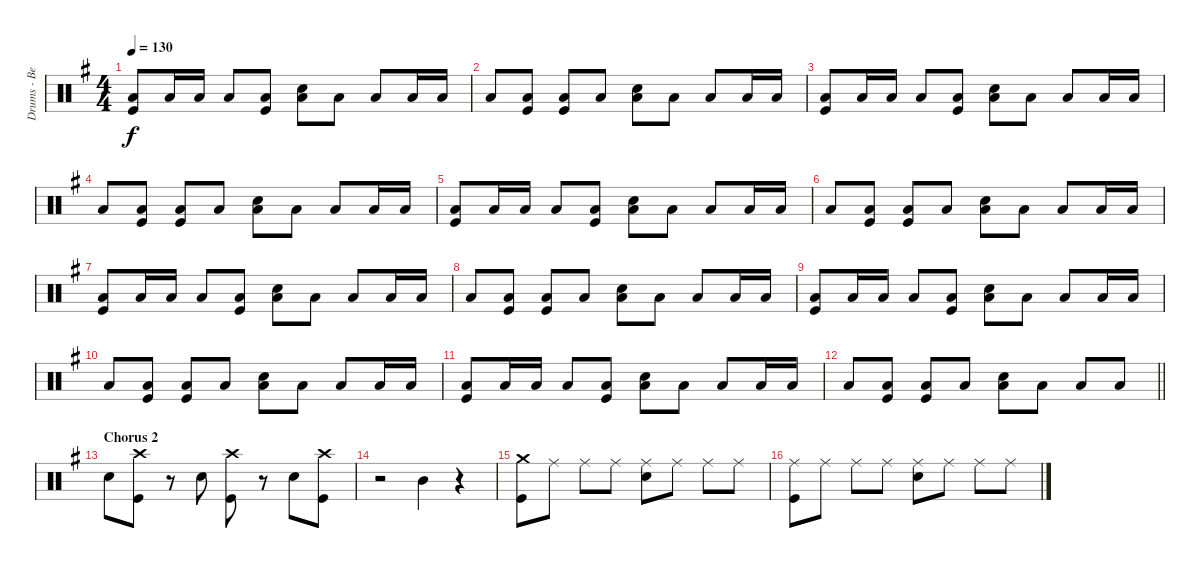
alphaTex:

\track ("Drums - Ben Johnston" "Drums - Be") {instrument percussion}
\staff {score}
\articulation defaults
\ts (4 4)
\tempo 130
\clef neutral
\ks eminor
("Low Tom (hit)" "Kick (hit)").8{dy f} "Low Tom (hit)".16 "Low Tom (hit)".16 "Low Tom (hit)".8 ("Low Tom (hit)" "Kick (hit)").8 ("Low Tom (hit)" "Snare (hit) 2").8 "Low Tom (hit)".8 "Low Tom (hit)".8 "Low Tom (hit)".16 "Low Tom (hit)".16 |
"Low Tom (hit)".8 ("Low Tom (hit)" "Kick (hit)").8 ("Low Tom (hit)" "Kick (hit)").8 "Low Tom (hit)".8 ("Low Tom (hit)" "Snare (hit) 2").8 "Low Tom (hit)".8 "Low Tom (hit)".8 "Low Tom (hit)".16 "Low Tom (hit)".16 |
("Low Tom (hit)" "Kick (hit)").8 "Low Tom (hit)".16 "Low Tom (hit)".16 "Low Tom (hit)".8 ("Low Tom (hit)" "Kick (hit)").8 ("Low Tom (hit)" "Snare (hit) 2").8 "Low Tom (hit)".8 "Low Tom (hit)".8 "Low Tom (hit)".16 "Low Tom (hit)".16 |
"Low Tom (hit)".8 ("Low Tom (hit)" "Kick (hit)").8 ("Low Tom (hit)" "Kick (hit)").8 "Low Tom (hit)".8 ("Low Tom (hit)" "Snare (hit) 2").8 "Low Tom (hit)".8 "Low Tom (hit)".8 "Low Tom (hit)".16 "Low Tom (hit)".16 |
("Low Tom (hit)" "Kick (hit)").8 "Low Tom (hit)".16 "Low Tom (hit)".16 "Low Tom (hit)".8 ("Low Tom (hit)" "Kick (hit)").8 ("Low Tom (hit)" "Snare (hit) 2").8 "Low Tom (hit)".8 "Low Tom (hit)".8 "Low Tom (hit)".16 "Low Tom (hit)".16 |
"Low Tom (hit)".8 ("Low Tom (hit)" "Kick (hit)").8 ("Low Tom (hit)" "Kick (hit)").8 "Low Tom (hit)".8 ("Low Tom (hit)" "Snare (hit) 2").8 "Low Tom (hit)".8 "Low Tom (hit)".8 "Low Tom (hit)".16 "Low Tom (hit)".16 |
("Low Tom (hit)" "Kick (hit)").8 "Low Tom (hit)".16 "Low Tom (hit)".16 "Low Tom (hit)".8 ("Low Tom (hit)" "Kick (hit)").8 ("Low Tom (hit)" "Snare (hit) 2").8 "Low Tom (hit)".8 "Low Tom (hit)".8 "Low Tom (hit)".16 "Low Tom (hit)".16 |
"Low Tom (hit)".8 ("Low Tom (hit)" "Kick (hit)").8 ("Low Tom (hit)" "Kick (hit)").8 "Low Tom (hit)".8 ("Low Tom (hit)" "Snare (hit) 2").8 "Low Tom (hit)".8 "Low Tom (hit)".8 "Low Tom (hit)".16 "Low Tom (hit)".16 |
("Low Tom (hit)" "Kick (hit)").8 "Low Tom (hit)".16 "Low Tom (hit)".16 "Low Tom (hit)".8 ("Low Tom (hit)" "Kick (hit)").8 ("Low Tom (hit)" "Snare (hit) 2").8 "Low Tom (hit)".8 "Low Tom (hit)".8 "Low Tom (hit)".16 "Low Tom (hit)".16 |
"Low Tom (hit)".8 ("Low Tom (hit)" "Kick (hit)").8 ("Low Tom (hit)" "Kick (hit)").8 "Low Tom (hit)".8 ("Low Tom (hit)" "Snare (hit) 2").8 "Low Tom (hit)".8 "Low Tom (hit)".8 "Low Tom (hit)".16 "Low Tom (hit)".16 |
("Low Tom (hit)" "Kick (hit)").8 "Low Tom (hit)".16 "Low Tom (hit)".16 "Low Tom (hit)".8 ("Low Tom (hit)" "Kick (hit)").8 ("Low Tom (hit)" "Snare (hit) 2").8 "Low Tom (hit)".8 "Low Tom (hit)".8 "Low Tom (hit)".16 "Low Tom (hit)".16 |
\barLineRight lightlight "Low Tom (hit)".8
("Low Tom (hit)" "Kick (hit)").8 ("Low Tom (hit)" "Kick (hit)").8 "Low Tom (hit)".8 ("Low Tom (hit)" "Snare (hit) 2").8 "Low Tom (hit)".8 "Low Tom (hit)".8 "Low Tom (hit)".8 |
\section ("" "Chorus 2")
"Snare (hit) 2".8 ("Crash high (hit)" "Kick (hit)").8 r.8 "Snare (hit) 2".8 ("Crash high (hit)" "Kick (hit)").8 r.8 "Snare (hit) 2".8 ("Crash high (hit)" "Kick (hit)").8 |
r.2 "Mid Tom (hit)".4 r.4 |
("Crash medium (hit)" "Kick (hit)").8 "Ride (middle)".8 "Ride (middle)".8 "Ride (middle)".8 ("Ride (middle)" "Snare (hit) 2").8 "Ride (middle)".8 "Ride (middle)".8 "Ride (middle)".8 |
("Ride (middle)" "Kick (hit)").8 "Ride (middle)".8 "Ride (middle)".8 "Ride (middle)".8 ("Ride (middle)" "Snare (hit) 2").8 "Ride (middle)".8 "Ride (middle)".8 "Ride (middle)".8
